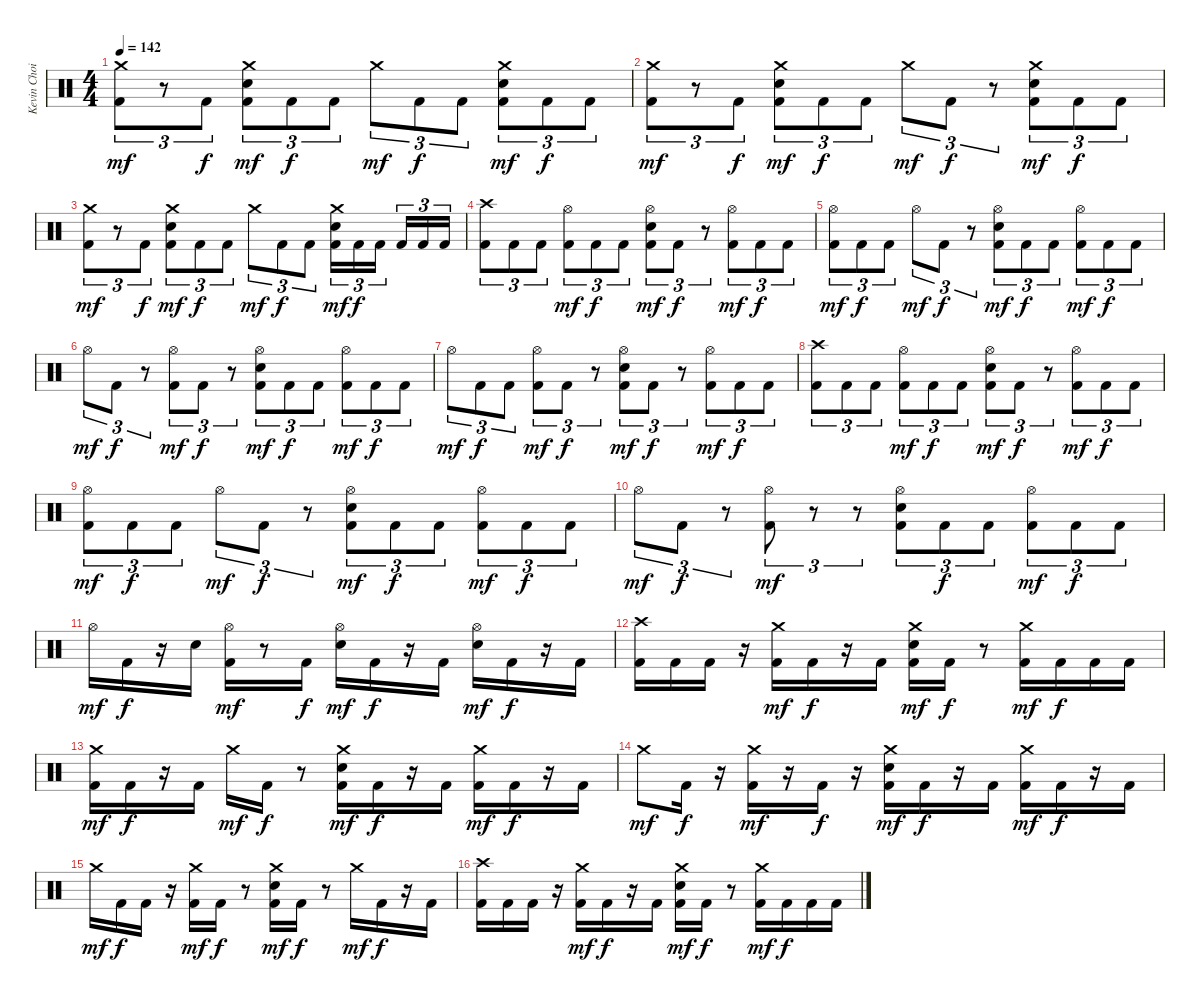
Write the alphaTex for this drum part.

\track ("Kevin Choiral" "Kevin Choi") {instrument percussion}
\staff
\articulation defaults
\ts (4 4)
\tempo 142
\clef neutral
\ks c
("Crash medium (hit)" "Kick (hit) 2").8{tu (3 2) dy mf} r.8{tu (3 2)} "Kick (hit) 2".8{tu (3 2) dy f} ("Crash medium (hit)" "Electric Snare (hit)" "Kick (hit) 2").8{tu (3 2) dy mf} "Kick (hit) 2".8{tu (3 2) dy f} "Kick (hit) 2".8{tu (3 2)} "Crash medium (hit)".8{tu (3 2) dy mf} "Kick (hit) 2".8{tu (3 2) dy f} "Kick (hit) 2".8{tu (3 2)} ("Crash medium (hit)" "Electric Snare (hit)" "Kick (hit) 2").8{tu (3 2) dy mf} "Kick (hit) 2".8{tu (3 2) dy f} "Kick (hit) 2".8{tu (3 2)} |
("Crash medium (hit)" "Kick (hit) 2").8{tu (3 2) dy mf} r.8{tu (3 2)} "Kick (hit) 2".8{tu (3 2) dy f} ("Crash medium (hit)" "Electric Snare (hit)" "Kick (hit) 2").8{tu (3 2) dy mf} "Kick (hit) 2".8{tu (3 2) dy f} "Kick (hit) 2".8{tu (3 2)} "Crash medium (hit)".8{tu (3 2) dy mf} "Kick (hit) 2".8{tu (3 2) dy f} r.8{tu (3 2)} ("Crash medium (hit)" "Electric Snare (hit)" "Kick (hit) 2").8{tu (3 2) dy mf} "Kick (hit) 2".8{tu (3 2) dy f} "Kick (hit) 2".8{tu (3 2)} |
("Crash medium (hit)" "Kick (hit) 2").8{tu (3 2) dy mf} r.8{tu (3 2)} "Kick (hit) 2".8{tu (3 2) dy f} ("Crash medium (hit)" "Electric Snare (hit)" "Kick (hit) 2").8{tu (3 2) dy mf} "Kick (hit) 2".8{tu (3 2) dy f} "Kick (hit) 2".8{tu (3 2)} "Crash medium (hit)".8{tu (3 2) dy mf} "Kick (hit) 2".8{tu (3 2) dy f} "Kick (hit) 2".8{tu (3 2)} ("Crash medium (hit)" "Electric Snare (hit)" "Kick (hit) 2").16{tu (3 2) dy mf} "Kick (hit) 2".16{tu (3 2) dy f} "Kick (hit) 2".16{tu (3 2) beam splitsecondary} "Kick (hit) 2".16{tu (3 2)} "Kick (hit) 2".16{tu (3 2)} "Kick (hit) 2".16{tu (3 2)} |
("Crash high (hit)" "Kick (hit) 2").8{tu (3 2)} "Kick (hit) 2".8{tu (3 2)} "Kick (hit) 2".8{tu (3 2)} ("Hi-Hat (open)" "Kick (hit) 2").8{tu (3 2) dy mf} "Kick (hit) 2".8{tu (3 2) dy f} "Kick (hit) 2".8{tu (3 2)} ("Hi-Hat (open)" "Electric Snare (hit)" "Kick (hit) 2").8{tu (3 2) dy mf} "Kick (hit) 2".8{tu (3 2) dy f} r.8{tu (3 2)} ("Hi-Hat (open)" "Kick (hit) 2").8{tu (3 2) dy mf} "Kick (hit) 2".8{tu (3 2) dy f} "Kick (hit) 2".8{tu (3 2)} |
("Hi-Hat (open)" "Kick (hit) 2").8{tu (3 2) dy mf} "Kick (hit) 2".8{tu (3 2) dy f} "Kick (hit) 2".8{tu (3 2)} "Hi-Hat (open)".8{tu (3 2) dy mf} "Kick (hit) 2".8{tu (3 2) dy f} r.8{tu (3 2)} ("Hi-Hat (open)" "Electric Snare (hit)" "Kick (hit) 2").8{tu (3 2) dy mf} "Kick (hit) 2".8{tu (3 2) dy f} "Kick (hit) 2".8{tu (3 2)} ("Hi-Hat (open)" "Kick (hit) 2").8{tu (3 2) dy mf} "Kick (hit) 2".8{tu (3 2) dy f} "Kick (hit) 2".8{tu (3 2)} |
"Hi-Hat (open)".8{tu (3 2) dy mf} "Kick (hit) 2".8{tu (3 2) dy f} r.8{tu (3 2)} ("Hi-Hat (open)" "Kick (hit) 2").8{tu (3 2) dy mf} "Kick (hit) 2".8{tu (3 2) dy f} r.8{tu (3 2)} ("Hi-Hat (open)" "Electric Snare (hit)" "Kick (hit) 2").8{tu (3 2) dy mf} "Kick (hit) 2".8{tu (3 2) dy f} "Kick (hit) 2".8{tu (3 2)} ("Hi-Hat (open)" "Kick (hit) 2").8{tu (3 2) dy mf} "Kick (hit) 2".8{tu (3 2) dy f} "Kick (hit) 2".8{tu (3 2)} |
"Hi-Hat (open)".8{tu (3 2) dy mf} "Kick (hit) 2".8{tu (3 2) dy f} "Kick (hit) 2".8{tu (3 2)} ("Hi-Hat (open)" "Kick (hit) 2").8{tu (3 2) dy mf} "Kick (hit) 2".8{tu (3 2) dy f} r.8{tu (3 2)} ("Hi-Hat (open)" "Electric Snare (hit)" "Kick (hit) 2").8{tu (3 2) dy mf} "Kick (hit) 2".8{tu (3 2) dy f} r.8{tu (3 2)} ("Hi-Hat (open)" "Kick (hit) 2").8{tu (3 2) dy mf} "Kick (hit) 2".8{tu (3 2) dy f} "Kick (hit) 2".8{tu (3 2)} |
("Crash high (hit)" "Kick (hit) 2").8{tu (3 2)} "Kick (hit) 2".8{tu (3 2)} "Kick (hit) 2".8{tu (3 2)} ("Hi-Hat (open)" "Kick (hit) 2").8{tu (3 2) dy mf} "Kick (hit) 2".8{tu (3 2) dy f} "Kick (hit) 2".8{tu (3 2)} ("Hi-Hat (open)" "Electric Snare (hit)" "Kick (hit) 2").8{tu (3 2) dy mf} "Kick (hit) 2".8{tu (3 2) dy f} r.8{tu (3 2)} ("Hi-Hat (open)" "Kick (hit) 2").8{tu (3 2) dy mf} "Kick (hit) 2".8{tu (3 2) dy f} "Kick (hit) 2".8{tu (3 2)} |
("Hi-Hat (open)" "Kick (hit) 2").8{tu (3 2) dy mf} "Kick (hit) 2".8{tu (3 2) dy f} "Kick (hit) 2".8{tu (3 2)} "Hi-Hat (open)".8{tu (3 2) dy mf} "Kick (hit) 2".8{tu (3 2) dy f} r.8{tu (3 2)} ("Hi-Hat (open)" "Electric Snare (hit)" "Kick (hit) 2").8{tu (3 2) dy mf} "Kick (hit) 2".8{tu (3 2) dy f} "Kick (hit) 2".8{tu (3 2)} ("Hi-Hat (open)" "Kick (hit) 2").8{tu (3 2) dy mf} "Kick (hit) 2".8{tu (3 2) dy f} "Kick (hit) 2".8{tu (3 2)} |
"Hi-Hat (open)".8{tu (3 2) dy mf} "Kick (hit) 2".8{tu (3 2) dy f} r.8{tu (3 2)} ("Hi-Hat (open)" "Kick (hit) 2").8{tu (3 2) dy mf} r.8{tu (3 2)} r.8{tu (3 2)} ("Hi-Hat (open)" "Electric Snare (hit)" "Kick (hit) 2").8{tu (3 2)} "Kick (hit) 2".8{tu (3 2) dy f} "Kick (hit) 2".8{tu (3 2)} ("Hi-Hat (open)" "Kick (hit) 2").8{tu (3 2) dy mf} "Kick (hit) 2".8{tu (3 2) dy f} "Kick (hit) 2".8{tu (3 2)} |
"Hi-Hat (open)".16{dy mf} "Kick (hit) 2".16{dy f} r.16 "Electric Snare (hit)".16 ("Hi-Hat (open)" "Kick (hit) 2").16{dy mf} r.8 "Kick (hit) 2".16{dy f} ("Hi-Hat (open)" "Electric Snare (hit)").16{dy mf} "Kick (hit) 2".16{dy f} r.16 "Kick (hit) 2".16 ("Hi-Hat (open)" "Electric Snare (hit)").16{dy mf} "Kick (hit) 2".16{dy f} r.16 "Kick (hit) 2".16 |
("Crash high (hit)" "Kick (hit) 2").16 "Kick (hit) 2".16 "Kick (hit) 2".16 r.16 ("Crash medium (hit)" "Kick (hit) 2").16{dy mf} "Kick (hit) 2".16{dy f} r.16 "Kick (hit) 2".16 ("Crash medium (hit)" "Electric Snare (hit)" "Kick (hit) 2").16{dy mf} "Kick (hit) 2".16{dy f} r.8 ("Crash medium (hit)" "Kick (hit) 2").16{dy mf} "Kick (hit) 2".16{dy f} "Kick (hit) 2".16 "Kick (hit) 2".16 |
("Crash medium (hit)" "Kick (hit) 2").16{dy mf} "Kick (hit) 2".16{dy f} r.16 "Kick (hit) 2".16 "Crash medium (hit)".16{dy mf} "Kick (hit) 2".16{dy f} r.8 ("Crash medium (hit)" "Electric Snare (hit)" "Kick (hit) 2").16{dy mf} "Kick (hit) 2".16{dy f} r.16 "Kick (hit) 2".16 ("Crash medium (hit)" "Kick (hit) 2").16{dy mf} "Kick (hit) 2".16{dy f} r.16 "Kick (hit) 2".16 |
"Crash medium (hit)".8{dy mf} "Kick (hit) 2".16{dy f} r.16 ("Crash medium (hit)" "Kick (hit) 2").16{dy mf} r.16 "Kick (hit) 2".16{dy f} r.16 ("Crash medium (hit)" "Electric Snare (hit)" "Kick (hit) 2").16{dy mf} "Kick (hit) 2".16{dy f} r.16 "Kick (hit) 2".16 ("Crash medium (hit)" "Kick (hit) 2").16{dy mf} "Kick (hit) 2".16{dy f} r.16 "Kick (hit) 2".16 |
"Crash medium (hit)".16{dy mf} "Kick (hit) 2".16{dy f} "Kick (hit) 2".16 r.16 ("Crash medium (hit)" "Kick (hit) 2").16{dy mf} "Kick (hit) 2".16{dy f} r.8 ("Crash medium (hit)" "Electric Snare (hit)" "Kick (hit) 2").16{dy mf} "Kick (hit) 2".16{dy f} r.8 "Crash medium (hit)".16{dy mf} "Kick (hit) 2".16{dy f} r.16 "Kick (hit) 2".16 |
("Crash high (hit)" "Kick (hit) 2").16 "Kick (hit) 2".16 "Kick (hit) 2".16 r.16 ("Crash medium (hit)" "Kick (hit) 2").16{dy mf} "Kick (hit) 2".16{dy f} r.16 "Kick (hit) 2".16 ("Crash medium (hit)" "Electric Snare (hit)" "Kick (hit) 2").16{dy mf} "Kick (hit) 2".16{dy f} r.8 ("Crash medium (hit)" "Kick (hit) 2").16{dy mf} "Kick (hit) 2".16{dy f} "Kick (hit) 2".16 "Kick (hit) 2".16
